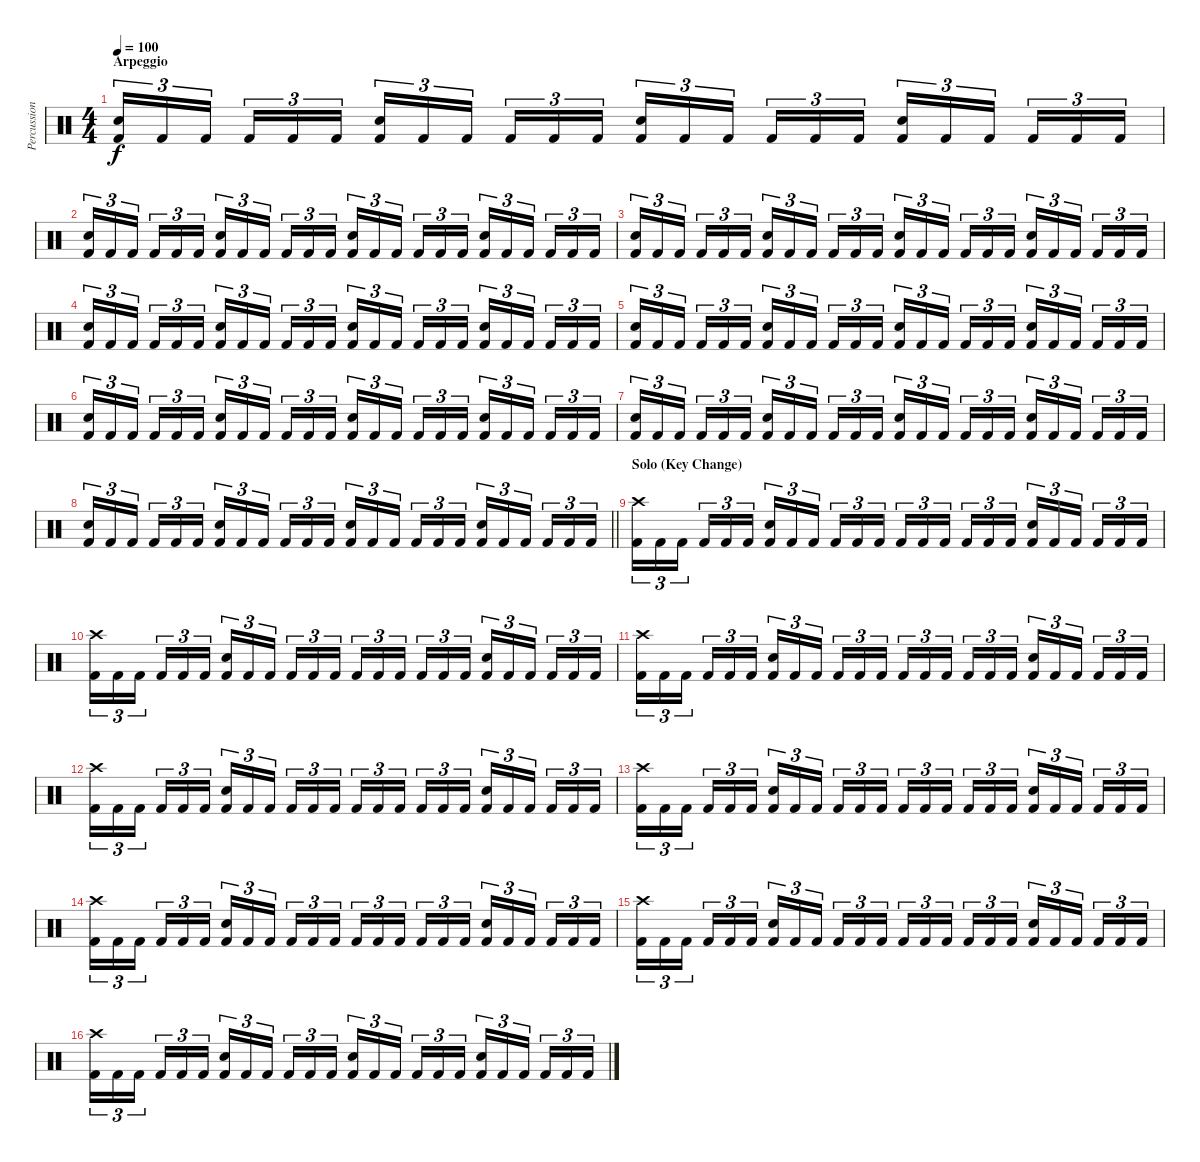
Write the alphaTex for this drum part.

\track ("Percussion" "Percussion") {instrument percussion}
\staff {score}
\articulation defaults
\ts (4 4)
\section ("" "Arpeggio")
\tempo 100
\clef neutral
\ks c
("Electric Snare (hit)" "Kick (hit) 2").16{tu (3 2) dy f} "Kick (hit) 2".16{tu (3 2)} "Kick (hit) 2".16{tu (3 2) beam splitsecondary} "Kick (hit) 2".16{tu (3 2)} "Kick (hit) 2".16{tu (3 2)} "Kick (hit) 2".16{tu (3 2)} ("Electric Snare (hit)" "Kick (hit) 2").16{tu (3 2)} "Kick (hit) 2".16{tu (3 2)} "Kick (hit) 2".16{tu (3 2) beam splitsecondary} "Kick (hit) 2".16{tu (3 2)} "Kick (hit) 2".16{tu (3 2)} "Kick (hit) 2".16{tu (3 2)} ("Electric Snare (hit)" "Kick (hit) 2").16{tu (3 2)} "Kick (hit) 2".16{tu (3 2)} "Kick (hit) 2".16{tu (3 2) beam splitsecondary} "Kick (hit) 2".16{tu (3 2)} "Kick (hit) 2".16{tu (3 2)} "Kick (hit) 2".16{tu (3 2)} ("Electric Snare (hit)" "Kick (hit) 2").16{tu (3 2)} "Kick (hit) 2".16{tu (3 2)} "Kick (hit) 2".16{tu (3 2) beam splitsecondary} "Kick (hit) 2".16{tu (3 2)} "Kick (hit) 2".16{tu (3 2)} "Kick (hit) 2".16{tu (3 2)} |
("Electric Snare (hit)" "Kick (hit) 2").16{tu (3 2)} "Kick (hit) 2".16{tu (3 2)} "Kick (hit) 2".16{tu (3 2) beam splitsecondary} "Kick (hit) 2".16{tu (3 2)} "Kick (hit) 2".16{tu (3 2)} "Kick (hit) 2".16{tu (3 2)} ("Electric Snare (hit)" "Kick (hit) 2").16{tu (3 2)} "Kick (hit) 2".16{tu (3 2)} "Kick (hit) 2".16{tu (3 2) beam splitsecondary} "Kick (hit) 2".16{tu (3 2)} "Kick (hit) 2".16{tu (3 2)} "Kick (hit) 2".16{tu (3 2)} ("Electric Snare (hit)" "Kick (hit) 2").16{tu (3 2)} "Kick (hit) 2".16{tu (3 2)} "Kick (hit) 2".16{tu (3 2) beam splitsecondary} "Kick (hit) 2".16{tu (3 2)} "Kick (hit) 2".16{tu (3 2)} "Kick (hit) 2".16{tu (3 2)} ("Electric Snare (hit)" "Kick (hit) 2").16{tu (3 2)} "Kick (hit) 2".16{tu (3 2)} "Kick (hit) 2".16{tu (3 2) beam splitsecondary} "Kick (hit) 2".16{tu (3 2)} "Kick (hit) 2".16{tu (3 2)} "Kick (hit) 2".16{tu (3 2)} |
("Electric Snare (hit)" "Kick (hit) 2").16{tu (3 2)} "Kick (hit) 2".16{tu (3 2)} "Kick (hit) 2".16{tu (3 2) beam splitsecondary} "Kick (hit) 2".16{tu (3 2)} "Kick (hit) 2".16{tu (3 2)} "Kick (hit) 2".16{tu (3 2)} ("Electric Snare (hit)" "Kick (hit) 2").16{tu (3 2)} "Kick (hit) 2".16{tu (3 2)} "Kick (hit) 2".16{tu (3 2) beam splitsecondary} "Kick (hit) 2".16{tu (3 2)} "Kick (hit) 2".16{tu (3 2)} "Kick (hit) 2".16{tu (3 2)} ("Electric Snare (hit)" "Kick (hit) 2").16{tu (3 2)} "Kick (hit) 2".16{tu (3 2)} "Kick (hit) 2".16{tu (3 2) beam splitsecondary} "Kick (hit) 2".16{tu (3 2)} "Kick (hit) 2".16{tu (3 2)} "Kick (hit) 2".16{tu (3 2)} ("Electric Snare (hit)" "Kick (hit) 2").16{tu (3 2)} "Kick (hit) 2".16{tu (3 2)} "Kick (hit) 2".16{tu (3 2) beam splitsecondary} "Kick (hit) 2".16{tu (3 2)} "Kick (hit) 2".16{tu (3 2)} "Kick (hit) 2".16{tu (3 2)} |
("Electric Snare (hit)" "Kick (hit) 2").16{tu (3 2)} "Kick (hit) 2".16{tu (3 2)} "Kick (hit) 2".16{tu (3 2) beam splitsecondary} "Kick (hit) 2".16{tu (3 2)} "Kick (hit) 2".16{tu (3 2)} "Kick (hit) 2".16{tu (3 2)} ("Electric Snare (hit)" "Kick (hit) 2").16{tu (3 2)} "Kick (hit) 2".16{tu (3 2)} "Kick (hit) 2".16{tu (3 2) beam splitsecondary} "Kick (hit) 2".16{tu (3 2)} "Kick (hit) 2".16{tu (3 2)} "Kick (hit) 2".16{tu (3 2)} ("Electric Snare (hit)" "Kick (hit) 2").16{tu (3 2)} "Kick (hit) 2".16{tu (3 2)} "Kick (hit) 2".16{tu (3 2) beam splitsecondary} "Kick (hit) 2".16{tu (3 2)} "Kick (hit) 2".16{tu (3 2)} "Kick (hit) 2".16{tu (3 2)} ("Electric Snare (hit)" "Kick (hit) 2").16{tu (3 2)} "Kick (hit) 2".16{tu (3 2)} "Kick (hit) 2".16{tu (3 2) beam splitsecondary} "Kick (hit) 2".16{tu (3 2)} "Kick (hit) 2".16{tu (3 2)} "Kick (hit) 2".16{tu (3 2)} |
("Electric Snare (hit)" "Kick (hit) 2").16{tu (3 2)} "Kick (hit) 2".16{tu (3 2)} "Kick (hit) 2".16{tu (3 2) beam splitsecondary} "Kick (hit) 2".16{tu (3 2)} "Kick (hit) 2".16{tu (3 2)} "Kick (hit) 2".16{tu (3 2)} ("Electric Snare (hit)" "Kick (hit) 2").16{tu (3 2)} "Kick (hit) 2".16{tu (3 2)} "Kick (hit) 2".16{tu (3 2) beam splitsecondary} "Kick (hit) 2".16{tu (3 2)} "Kick (hit) 2".16{tu (3 2)} "Kick (hit) 2".16{tu (3 2)} ("Electric Snare (hit)" "Kick (hit) 2").16{tu (3 2)} "Kick (hit) 2".16{tu (3 2)} "Kick (hit) 2".16{tu (3 2) beam splitsecondary} "Kick (hit) 2".16{tu (3 2)} "Kick (hit) 2".16{tu (3 2)} "Kick (hit) 2".16{tu (3 2)} ("Electric Snare (hit)" "Kick (hit) 2").16{tu (3 2)} "Kick (hit) 2".16{tu (3 2)} "Kick (hit) 2".16{tu (3 2) beam splitsecondary} "Kick (hit) 2".16{tu (3 2)} "Kick (hit) 2".16{tu (3 2)} "Kick (hit) 2".16{tu (3 2)} |
("Electric Snare (hit)" "Kick (hit) 2").16{tu (3 2)} "Kick (hit) 2".16{tu (3 2)} "Kick (hit) 2".16{tu (3 2) beam splitsecondary} "Kick (hit) 2".16{tu (3 2)} "Kick (hit) 2".16{tu (3 2)} "Kick (hit) 2".16{tu (3 2)} ("Electric Snare (hit)" "Kick (hit) 2").16{tu (3 2)} "Kick (hit) 2".16{tu (3 2)} "Kick (hit) 2".16{tu (3 2) beam splitsecondary} "Kick (hit) 2".16{tu (3 2)} "Kick (hit) 2".16{tu (3 2)} "Kick (hit) 2".16{tu (3 2)} ("Electric Snare (hit)" "Kick (hit) 2").16{tu (3 2)} "Kick (hit) 2".16{tu (3 2)} "Kick (hit) 2".16{tu (3 2) beam splitsecondary} "Kick (hit) 2".16{tu (3 2)} "Kick (hit) 2".16{tu (3 2)} "Kick (hit) 2".16{tu (3 2)} ("Electric Snare (hit)" "Kick (hit) 2").16{tu (3 2)} "Kick (hit) 2".16{tu (3 2)} "Kick (hit) 2".16{tu (3 2) beam splitsecondary} "Kick (hit) 2".16{tu (3 2)} "Kick (hit) 2".16{tu (3 2)} "Kick (hit) 2".16{tu (3 2)} |
("Electric Snare (hit)" "Kick (hit) 2").16{tu (3 2)} "Kick (hit) 2".16{tu (3 2)} "Kick (hit) 2".16{tu (3 2) beam splitsecondary} "Kick (hit) 2".16{tu (3 2)} "Kick (hit) 2".16{tu (3 2)} "Kick (hit) 2".16{tu (3 2)} ("Electric Snare (hit)" "Kick (hit) 2").16{tu (3 2)} "Kick (hit) 2".16{tu (3 2)} "Kick (hit) 2".16{tu (3 2) beam splitsecondary} "Kick (hit) 2".16{tu (3 2)} "Kick (hit) 2".16{tu (3 2)} "Kick (hit) 2".16{tu (3 2)} ("Electric Snare (hit)" "Kick (hit) 2").16{tu (3 2)} "Kick (hit) 2".16{tu (3 2)} "Kick (hit) 2".16{tu (3 2) beam splitsecondary} "Kick (hit) 2".16{tu (3 2)} "Kick (hit) 2".16{tu (3 2)} "Kick (hit) 2".16{tu (3 2)} ("Electric Snare (hit)" "Kick (hit) 2").16{tu (3 2)} "Kick (hit) 2".16{tu (3 2)} "Kick (hit) 2".16{tu (3 2) beam splitsecondary} "Kick (hit) 2".16{tu (3 2)} "Kick (hit) 2".16{tu (3 2)} "Kick (hit) 2".16{tu (3 2)} |
\barLineRight lightlight
("Electric Snare (hit)" "Kick (hit) 2").16{tu (3 2)} "Kick (hit) 2".16{tu (3 2)} "Kick (hit) 2".16{tu (3 2) beam splitsecondary} "Kick (hit) 2".16{tu (3 2)} "Kick (hit) 2".16{tu (3 2)} "Kick (hit) 2".16{tu (3 2)} ("Electric Snare (hit)" "Kick (hit) 2").16{tu (3 2)} "Kick (hit) 2".16{tu (3 2)} "Kick (hit) 2".16{tu (3 2) beam splitsecondary} "Kick (hit) 2".16{tu (3 2)} "Kick (hit) 2".16{tu (3 2)} "Kick (hit) 2".16{tu (3 2)} ("Electric Snare (hit)" "Kick (hit) 2").16{tu (3 2)} "Kick (hit) 2".16{tu (3 2)} "Kick (hit) 2".16{tu (3 2) beam splitsecondary} "Kick (hit) 2".16{tu (3 2)} "Kick (hit) 2".16{tu (3 2)} "Kick (hit) 2".16{tu (3 2)} ("Electric Snare (hit)" "Kick (hit) 2").16{tu (3 2)} "Kick (hit) 2".16{tu (3 2)} "Kick (hit) 2".16{tu (3 2) beam splitsecondary} "Kick (hit) 2".16{tu (3 2)} "Kick (hit) 2".16{tu (3 2)} "Kick (hit) 2".16{tu (3 2)} |
\section ("" "Solo (Key Change)")
("Crash high (hit)" "Kick (hit) 2").16{tu (3 2)} "Kick (hit) 2".16{tu (3 2)} "Kick (hit) 2".16{tu (3 2) beam splitsecondary} "Kick (hit) 2".16{tu (3 2)} "Kick (hit) 2".16{tu (3 2)} "Kick (hit) 2".16{tu (3 2)} ("Electric Snare (hit)" "Kick (hit) 2").16{tu (3 2)} "Kick (hit) 2".16{tu (3 2)} "Kick (hit) 2".16{tu (3 2) beam splitsecondary} "Kick (hit) 2".16{tu (3 2)} "Kick (hit) 2".16{tu (3 2)} "Kick (hit) 2".16{tu (3 2)} "Kick (hit) 2".16{tu (3 2)} "Kick (hit) 2".16{tu (3 2)} "Kick (hit) 2".16{tu (3 2) beam splitsecondary} "Kick (hit) 2".16{tu (3 2)} "Kick (hit) 2".16{tu (3 2)} "Kick (hit) 2".16{tu (3 2)} ("Electric Snare (hit)" "Kick (hit) 2").16{tu (3 2)} "Kick (hit) 2".16{tu (3 2)} "Kick (hit) 2".16{tu (3 2) beam splitsecondary} "Kick (hit) 2".16{tu (3 2)} "Kick (hit) 2".16{tu (3 2)} "Kick (hit) 2".16{tu (3 2)} |
("Crash high (hit)" "Kick (hit) 2").16{tu (3 2)} "Kick (hit) 2".16{tu (3 2)} "Kick (hit) 2".16{tu (3 2) beam splitsecondary} "Kick (hit) 2".16{tu (3 2)} "Kick (hit) 2".16{tu (3 2)} "Kick (hit) 2".16{tu (3 2)} ("Electric Snare (hit)" "Kick (hit) 2").16{tu (3 2)} "Kick (hit) 2".16{tu (3 2)} "Kick (hit) 2".16{tu (3 2) beam splitsecondary} "Kick (hit) 2".16{tu (3 2)} "Kick (hit) 2".16{tu (3 2)} "Kick (hit) 2".16{tu (3 2)} "Kick (hit) 2".16{tu (3 2)} "Kick (hit) 2".16{tu (3 2)} "Kick (hit) 2".16{tu (3 2) beam splitsecondary} "Kick (hit) 2".16{tu (3 2)} "Kick (hit) 2".16{tu (3 2)} "Kick (hit) 2".16{tu (3 2)} ("Electric Snare (hit)" "Kick (hit) 2").16{tu (3 2)} "Kick (hit) 2".16{tu (3 2)} "Kick (hit) 2".16{tu (3 2) beam splitsecondary} "Kick (hit) 2".16{tu (3 2)} "Kick (hit) 2".16{tu (3 2)} "Kick (hit) 2".16{tu (3 2)} |
("Crash high (hit)" "Kick (hit) 2").16{tu (3 2)} "Kick (hit) 2".16{tu (3 2)} "Kick (hit) 2".16{tu (3 2) beam splitsecondary} "Kick (hit) 2".16{tu (3 2)} "Kick (hit) 2".16{tu (3 2)} "Kick (hit) 2".16{tu (3 2)} ("Electric Snare (hit)" "Kick (hit) 2").16{tu (3 2)} "Kick (hit) 2".16{tu (3 2)} "Kick (hit) 2".16{tu (3 2) beam splitsecondary} "Kick (hit) 2".16{tu (3 2)} "Kick (hit) 2".16{tu (3 2)} "Kick (hit) 2".16{tu (3 2)} "Kick (hit) 2".16{tu (3 2)} "Kick (hit) 2".16{tu (3 2)} "Kick (hit) 2".16{tu (3 2) beam splitsecondary} "Kick (hit) 2".16{tu (3 2)} "Kick (hit) 2".16{tu (3 2)} "Kick (hit) 2".16{tu (3 2)} ("Electric Snare (hit)" "Kick (hit) 2").16{tu (3 2)} "Kick (hit) 2".16{tu (3 2)} "Kick (hit) 2".16{tu (3 2) beam splitsecondary} "Kick (hit) 2".16{tu (3 2)} "Kick (hit) 2".16{tu (3 2)} "Kick (hit) 2".16{tu (3 2)} |
("Crash high (hit)" "Kick (hit) 2").16{tu (3 2)} "Kick (hit) 2".16{tu (3 2)} "Kick (hit) 2".16{tu (3 2) beam splitsecondary} "Kick (hit) 2".16{tu (3 2)} "Kick (hit) 2".16{tu (3 2)} "Kick (hit) 2".16{tu (3 2)} ("Electric Snare (hit)" "Kick (hit) 2").16{tu (3 2)} "Kick (hit) 2".16{tu (3 2)} "Kick (hit) 2".16{tu (3 2) beam splitsecondary} "Kick (hit) 2".16{tu (3 2)} "Kick (hit) 2".16{tu (3 2)} "Kick (hit) 2".16{tu (3 2)} "Kick (hit) 2".16{tu (3 2)} "Kick (hit) 2".16{tu (3 2)} "Kick (hit) 2".16{tu (3 2) beam splitsecondary} "Kick (hit) 2".16{tu (3 2)} "Kick (hit) 2".16{tu (3 2)} "Kick (hit) 2".16{tu (3 2)} ("Electric Snare (hit)" "Kick (hit) 2").16{tu (3 2)} "Kick (hit) 2".16{tu (3 2)} "Kick (hit) 2".16{tu (3 2) beam splitsecondary} "Kick (hit) 2".16{tu (3 2)} "Kick (hit) 2".16{tu (3 2)} "Kick (hit) 2".16{tu (3 2)} |
("Crash high (hit)" "Kick (hit) 2").16{tu (3 2)} "Kick (hit) 2".16{tu (3 2)} "Kick (hit) 2".16{tu (3 2) beam splitsecondary} "Kick (hit) 2".16{tu (3 2)} "Kick (hit) 2".16{tu (3 2)} "Kick (hit) 2".16{tu (3 2)} ("Electric Snare (hit)" "Kick (hit) 2").16{tu (3 2)} "Kick (hit) 2".16{tu (3 2)} "Kick (hit) 2".16{tu (3 2) beam splitsecondary} "Kick (hit) 2".16{tu (3 2)} "Kick (hit) 2".16{tu (3 2)} "Kick (hit) 2".16{tu (3 2)} "Kick (hit) 2".16{tu (3 2)} "Kick (hit) 2".16{tu (3 2)} "Kick (hit) 2".16{tu (3 2) beam splitsecondary} "Kick (hit) 2".16{tu (3 2)} "Kick (hit) 2".16{tu (3 2)} "Kick (hit) 2".16{tu (3 2)} ("Electric Snare (hit)" "Kick (hit) 2").16{tu (3 2)} "Kick (hit) 2".16{tu (3 2)} "Kick (hit) 2".16{tu (3 2) beam splitsecondary} "Kick (hit) 2".16{tu (3 2)} "Kick (hit) 2".16{tu (3 2)} "Kick (hit) 2".16{tu (3 2)} |
("Crash high (hit)" "Kick (hit) 2").16{tu (3 2)} "Kick (hit) 2".16{tu (3 2)} "Kick (hit) 2".16{tu (3 2) beam splitsecondary} "Kick (hit) 2".16{tu (3 2)} "Kick (hit) 2".16{tu (3 2)} "Kick (hit) 2".16{tu (3 2)} ("Electric Snare (hit)" "Kick (hit) 2").16{tu (3 2)} "Kick (hit) 2".16{tu (3 2)} "Kick (hit) 2".16{tu (3 2) beam splitsecondary} "Kick (hit) 2".16{tu (3 2)} "Kick (hit) 2".16{tu (3 2)} "Kick (hit) 2".16{tu (3 2)} "Kick (hit) 2".16{tu (3 2)} "Kick (hit) 2".16{tu (3 2)} "Kick (hit) 2".16{tu (3 2) beam splitsecondary} "Kick (hit) 2".16{tu (3 2)} "Kick (hit) 2".16{tu (3 2)} "Kick (hit) 2".16{tu (3 2)} ("Electric Snare (hit)" "Kick (hit) 2").16{tu (3 2)} "Kick (hit) 2".16{tu (3 2)} "Kick (hit) 2".16{tu (3 2) beam splitsecondary} "Kick (hit) 2".16{tu (3 2)} "Kick (hit) 2".16{tu (3 2)} "Kick (hit) 2".16{tu (3 2)} |
("Crash high (hit)" "Kick (hit) 2").16{tu (3 2)} "Kick (hit) 2".16{tu (3 2)} "Kick (hit) 2".16{tu (3 2) beam splitsecondary} "Kick (hit) 2".16{tu (3 2)} "Kick (hit) 2".16{tu (3 2)} "Kick (hit) 2".16{tu (3 2)} ("Electric Snare (hit)" "Kick (hit) 2").16{tu (3 2)} "Kick (hit) 2".16{tu (3 2)} "Kick (hit) 2".16{tu (3 2) beam splitsecondary} "Kick (hit) 2".16{tu (3 2)} "Kick (hit) 2".16{tu (3 2)} "Kick (hit) 2".16{tu (3 2)} "Kick (hit) 2".16{tu (3 2)} "Kick (hit) 2".16{tu (3 2)} "Kick (hit) 2".16{tu (3 2) beam splitsecondary} "Kick (hit) 2".16{tu (3 2)} "Kick (hit) 2".16{tu (3 2)} "Kick (hit) 2".16{tu (3 2)} ("Electric Snare (hit)" "Kick (hit) 2").16{tu (3 2)} "Kick (hit) 2".16{tu (3 2)} "Kick (hit) 2".16{tu (3 2) beam splitsecondary} "Kick (hit) 2".16{tu (3 2)} "Kick (hit) 2".16{tu (3 2)} "Kick (hit) 2".16{tu (3 2)} |
("Crash high (hit)" "Kick (hit) 2").16{tu (3 2)} "Kick (hit) 2".16{tu (3 2)} "Kick (hit) 2".16{tu (3 2) beam splitsecondary} "Kick (hit) 2".16{tu (3 2)} "Kick (hit) 2".16{tu (3 2)} "Kick (hit) 2".16{tu (3 2)} ("Electric Snare (hit)" "Kick (hit) 2").16{tu (3 2)} "Kick (hit) 2".16{tu (3 2)} "Kick (hit) 2".16{tu (3 2) beam splitsecondary} "Kick (hit) 2".16{tu (3 2)} "Kick (hit) 2".16{tu (3 2)} "Kick (hit) 2".16{tu (3 2)} ("Electric Snare (hit)" "Kick (hit) 2").16{tu (3 2)} "Kick (hit) 2".16{tu (3 2)} "Kick (hit) 2".16{tu (3 2) beam splitsecondary} "Kick (hit) 2".16{tu (3 2)} "Kick (hit) 2".16{tu (3 2)} "Kick (hit) 2".16{tu (3 2)} ("Electric Snare (hit)" "Kick (hit) 2").16{tu (3 2)} "Kick (hit) 2".16{tu (3 2)} "Kick (hit) 2".16{tu (3 2) beam splitsecondary} "Kick (hit) 2".16{tu (3 2)} "Kick (hit) 2".16{tu (3 2)} "Kick (hit) 2".16{tu (3 2)}
